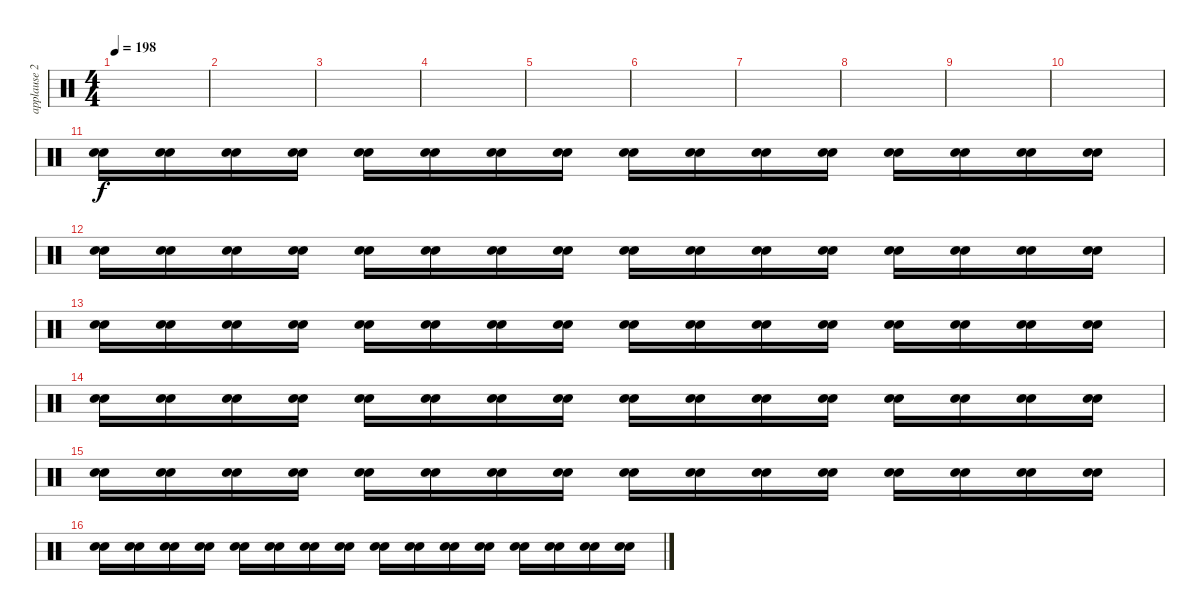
\track ("applause 2" "applause 2") {instrument percussion}
\staff {score}
\articulation defaults
\ts (4 4)
\tempo 198
\clef neutral
\ks c
|
|
|
|
|
|
|
|
|
|
("Hand Clap (hit)" "Hand Clap (hit)").16{volume 9} ("Hand Clap (hit)" "Hand Clap (hit)").16 ("Hand Clap (hit)" "Hand Clap (hit)").16 ("Hand Clap (hit)" "Hand Clap (hit)").16 ("Hand Clap (hit)" "Hand Clap (hit)").16 ("Hand Clap (hit)" "Hand Clap (hit)").16 ("Hand Clap (hit)" "Hand Clap (hit)").16 ("Hand Clap (hit)" "Hand Clap (hit)").16 ("Hand Clap (hit)" "Hand Clap (hit)").16 ("Hand Clap (hit)" "Hand Clap (hit)").16 ("Hand Clap (hit)" "Hand Clap (hit)").16 ("Hand Clap (hit)" "Hand Clap (hit)").16 ("Hand Clap (hit)" "Hand Clap (hit)").16 ("Hand Clap (hit)" "Hand Clap (hit)").16 ("Hand Clap (hit)" "Hand Clap (hit)").16 ("Hand Clap (hit)" "Hand Clap (hit)").16 |
("Hand Clap (hit)" "Hand Clap (hit)").16 ("Hand Clap (hit)" "Hand Clap (hit)").16 ("Hand Clap (hit)" "Hand Clap (hit)").16 ("Hand Clap (hit)" "Hand Clap (hit)").16 ("Hand Clap (hit)" "Hand Clap (hit)").16 ("Hand Clap (hit)" "Hand Clap (hit)").16 ("Hand Clap (hit)" "Hand Clap (hit)").16 ("Hand Clap (hit)" "Hand Clap (hit)").16 ("Hand Clap (hit)" "Hand Clap (hit)").16 ("Hand Clap (hit)" "Hand Clap (hit)").16 ("Hand Clap (hit)" "Hand Clap (hit)").16 ("Hand Clap (hit)" "Hand Clap (hit)").16 ("Hand Clap (hit)" "Hand Clap (hit)").16 ("Hand Clap (hit)" "Hand Clap (hit)").16 ("Hand Clap (hit)" "Hand Clap (hit)").16 ("Hand Clap (hit)" "Hand Clap (hit)").16 |
("Hand Clap (hit)" "Hand Clap (hit)").16 ("Hand Clap (hit)" "Hand Clap (hit)").16 ("Hand Clap (hit)" "Hand Clap (hit)").16 ("Hand Clap (hit)" "Hand Clap (hit)").16 ("Hand Clap (hit)" "Hand Clap (hit)").16 ("Hand Clap (hit)" "Hand Clap (hit)").16 ("Hand Clap (hit)" "Hand Clap (hit)").16 ("Hand Clap (hit)" "Hand Clap (hit)").16 ("Hand Clap (hit)" "Hand Clap (hit)").16 ("Hand Clap (hit)" "Hand Clap (hit)").16 ("Hand Clap (hit)" "Hand Clap (hit)").16 ("Hand Clap (hit)" "Hand Clap (hit)").16 ("Hand Clap (hit)" "Hand Clap (hit)").16 ("Hand Clap (hit)" "Hand Clap (hit)").16 ("Hand Clap (hit)" "Hand Clap (hit)").16 ("Hand Clap (hit)" "Hand Clap (hit)").16 |
("Hand Clap (hit)" "Hand Clap (hit)").16 ("Hand Clap (hit)" "Hand Clap (hit)").16 ("Hand Clap (hit)" "Hand Clap (hit)").16 ("Hand Clap (hit)" "Hand Clap (hit)").16 ("Hand Clap (hit)" "Hand Clap (hit)").16 ("Hand Clap (hit)" "Hand Clap (hit)").16 ("Hand Clap (hit)" "Hand Clap (hit)").16 ("Hand Clap (hit)" "Hand Clap (hit)").16 ("Hand Clap (hit)" "Hand Clap (hit)").16 ("Hand Clap (hit)" "Hand Clap (hit)").16 ("Hand Clap (hit)" "Hand Clap (hit)").16 ("Hand Clap (hit)" "Hand Clap (hit)").16 ("Hand Clap (hit)" "Hand Clap (hit)").16 ("Hand Clap (hit)" "Hand Clap (hit)").16 ("Hand Clap (hit)" "Hand Clap (hit)").16 ("Hand Clap (hit)" "Hand Clap (hit)").16 |
("Hand Clap (hit)" "Hand Clap (hit)").16 ("Hand Clap (hit)" "Hand Clap (hit)").16 ("Hand Clap (hit)" "Hand Clap (hit)").16 ("Hand Clap (hit)" "Hand Clap (hit)").16 ("Hand Clap (hit)" "Hand Clap (hit)").16 ("Hand Clap (hit)" "Hand Clap (hit)").16 ("Hand Clap (hit)" "Hand Clap (hit)").16 ("Hand Clap (hit)" "Hand Clap (hit)").16 ("Hand Clap (hit)" "Hand Clap (hit)").16 ("Hand Clap (hit)" "Hand Clap (hit)").16 ("Hand Clap (hit)" "Hand Clap (hit)").16 ("Hand Clap (hit)" "Hand Clap (hit)").16 ("Hand Clap (hit)" "Hand Clap (hit)").16 ("Hand Clap (hit)" "Hand Clap (hit)").16 ("Hand Clap (hit)" "Hand Clap (hit)").16 ("Hand Clap (hit)" "Hand Clap (hit)").16 |
("Hand Clap (hit)" "Hand Clap (hit)").16 ("Hand Clap (hit)" "Hand Clap (hit)").16 ("Hand Clap (hit)" "Hand Clap (hit)").16 ("Hand Clap (hit)" "Hand Clap (hit)").16 ("Hand Clap (hit)" "Hand Clap (hit)").16 ("Hand Clap (hit)" "Hand Clap (hit)").16 ("Hand Clap (hit)" "Hand Clap (hit)").16 ("Hand Clap (hit)" "Hand Clap (hit)").16 ("Hand Clap (hit)" "Hand Clap (hit)").16 ("Hand Clap (hit)" "Hand Clap (hit)").16 ("Hand Clap (hit)" "Hand Clap (hit)").16 ("Hand Clap (hit)" "Hand Clap (hit)").16 ("Hand Clap (hit)" "Hand Clap (hit)").16 ("Hand Clap (hit)" "Hand Clap (hit)").16 ("Hand Clap (hit)" "Hand Clap (hit)").16 ("Hand Clap (hit)" "Hand Clap (hit)").16
